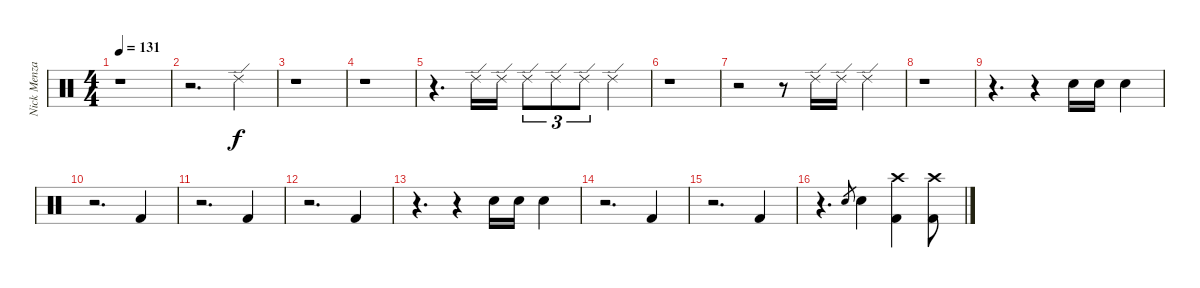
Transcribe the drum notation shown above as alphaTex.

\track ("Nick Menza" "Nick Menza") {instrument percussion}
\staff {score}
\articulation defaults
\ts (4 4)
\tempo 131
\clef neutral
\ks c
r.1{dy f} |
r.2{d} "Ride (edge) 2".4 |
r.1 |
r.1 |
r.4{d} "Ride (edge) 2".16 "Ride (edge) 2".16 "Ride (edge) 2".8{tu (3 2)} "Ride (edge) 2".8{tu (3 2)} "Ride (edge) 2".8{tu (3 2)} "Ride (edge) 2".4 |
r.1 |
r.2 r.8 "Ride (edge) 2".16 "Ride (edge) 2".16 "Ride (edge) 2".4 |
r.1 |
r.4{d} r.4 "Snare (hit) 2".16 "Snare (hit) 2".16 "Snare (hit) 2".4 |
r.2{d} "Kick (hit) 2".4 |
r.2{d} "Kick (hit) 2".4 |
r.2{d} "Kick (hit) 2".4 |
r.4{d} r.4 "Snare (hit) 2".16 "Snare (hit) 2".16 "Snare (hit) 2".4 |
r.2{d} "Kick (hit) 2".4 |
r.2{d} "Kick (hit) 2".4 |
r.4{d} "Snare (hit) 2".8{gr} "Snare (hit) 2".4 ("Crash high (hit)" "Kick (hit) 2").4 ("Crash high (hit)" "Kick (hit) 2").8
